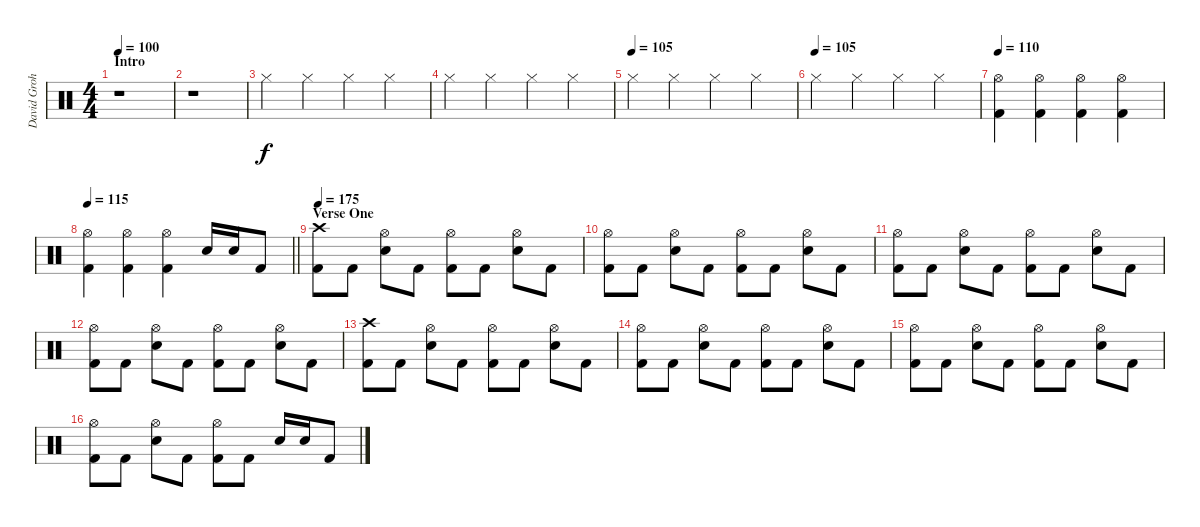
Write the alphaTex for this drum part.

\track ("David Grohl/Alfredo Ortiz" "David Groh") {instrument percussion}
\staff {score}
\articulation defaults
\ts (4 4)
\section ("" "Intro")
\tempo 100
\clef neutral
\ks c
r.1{dy f} |
r.1 |
"Hi-Hat (closed)".4{volume 10} "Hi-Hat (closed)".4 "Hi-Hat (closed)".4 "Hi-Hat (closed)".4 |
"Hi-Hat (closed)".4{volume 11} "Hi-Hat (closed)".4 "Hi-Hat (closed)".4 "Hi-Hat (closed)".4 |
\tempo (105)
"Hi-Hat (closed)".4{volume 12} "Hi-Hat (closed)".4 "Hi-Hat (closed)".4 "Hi-Hat (closed)".4 |
\tempo (105)
"Hi-Hat (closed)".4{volume 13} "Hi-Hat (closed)".4 "Hi-Hat (closed)".4 "Hi-Hat (closed)".4 |
\tempo 110
("Hi-Hat (open)" "Kick (hit) 2").4 ("Hi-Hat (open)" "Kick (hit) 2").4 ("Hi-Hat (open)" "Kick (hit) 2").4 ("Hi-Hat (open)" "Kick (hit) 2").4 |
\tempo 115
\barLineRight lightlight
("Hi-Hat (open)" "Kick (hit) 2").4 ("Hi-Hat (open)" "Kick (hit) 2").4 ("Hi-Hat (open)" "Kick (hit) 2").4 "Snare (hit) 2".16 "Snare (hit) 2".16 "Kick (hit) 2".8 |
\section ("" "Verse One")
\tempo 175
("Crash high (hit)" "Kick (hit) 2").8 "Kick (hit) 2".8 ("Hi-Hat (open)" "Snare (hit) 2").8 "Kick (hit) 2".8 ("Hi-Hat (open)" "Kick (hit) 2").8 "Kick (hit) 2".8 ("Hi-Hat (open)" "Snare (hit) 2").8 "Kick (hit) 2".8 |
("Hi-Hat (open)" "Kick (hit) 2").8 "Kick (hit) 2".8 ("Hi-Hat (open)" "Snare (hit) 2").8 "Kick (hit) 2".8 ("Hi-Hat (open)" "Kick (hit) 2").8 "Kick (hit) 2".8 ("Hi-Hat (open)" "Snare (hit) 2").8 "Kick (hit) 2".8 |
("Hi-Hat (open)" "Kick (hit) 2").8 "Kick (hit) 2".8 ("Hi-Hat (open)" "Snare (hit) 2").8 "Kick (hit) 2".8 ("Hi-Hat (open)" "Kick (hit) 2").8 "Kick (hit) 2".8 ("Hi-Hat (open)" "Snare (hit) 2").8 "Kick (hit) 2".8 |
("Hi-Hat (open)" "Kick (hit) 2").8 "Kick (hit) 2".8 ("Hi-Hat (open)" "Snare (hit) 2").8 "Kick (hit) 2".8 ("Hi-Hat (open)" "Kick (hit) 2").8 "Kick (hit) 2".8 ("Hi-Hat (open)" "Snare (hit) 2").8 "Kick (hit) 2".8 |
("Crash high (hit)" "Kick (hit) 2").8 "Kick (hit) 2".8 ("Hi-Hat (open)" "Snare (hit) 2").8 "Kick (hit) 2".8 ("Hi-Hat (open)" "Kick (hit) 2").8 "Kick (hit) 2".8 ("Hi-Hat (open)" "Snare (hit) 2").8 "Kick (hit) 2".8 |
("Hi-Hat (open)" "Kick (hit) 2").8 "Kick (hit) 2".8 ("Hi-Hat (open)" "Snare (hit) 2").8 "Kick (hit) 2".8 ("Hi-Hat (open)" "Kick (hit) 2").8 "Kick (hit) 2".8 ("Hi-Hat (open)" "Snare (hit) 2").8 "Kick (hit) 2".8 |
("Hi-Hat (open)" "Kick (hit) 2").8 "Kick (hit) 2".8 ("Hi-Hat (open)" "Snare (hit) 2").8 "Kick (hit) 2".8 ("Hi-Hat (open)" "Kick (hit) 2").8 "Kick (hit) 2".8 ("Hi-Hat (open)" "Snare (hit) 2").8 "Kick (hit) 2".8 |
("Hi-Hat (open)" "Kick (hit) 2").8 "Kick (hit) 2".8 ("Hi-Hat (open)" "Snare (hit) 2").8 "Kick (hit) 2".8 ("Hi-Hat (open)" "Kick (hit) 2").8 "Kick (hit) 2".8 "Snare (hit) 2".16 "Snare (hit) 2".16 "Kick (hit) 2".8
